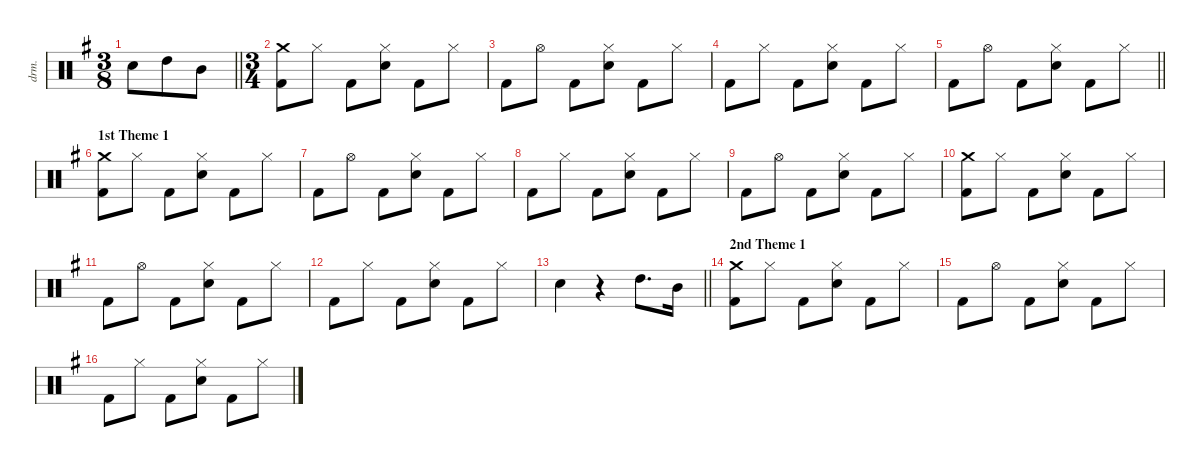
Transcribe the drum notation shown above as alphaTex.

\defaultSystemsLayout 4
\hideDynamics
\bracketExtendMode groupsimilarinstruments
\otherSystemsTrackNameOrientation horizontal
\track ("Drums" "drm.") {defaultSystemsLayout 4 instrument percussion}
\staff {score}
\articulation defaults
\ts (3 8)
\beaming (8 3)
\ac
\tempo (120 hide)
\clef neutral
\barLineRight lightlight
\ks eminor "Snare (hit) 2"{acc forcenatural}.8{dy f beam Down} "High Tom (hit)"{acc forcenatural}.8{beam Down} "Mid Tom (hit)"{acc forcenatural}.8{beam Down}
|
\ts (3 4)
\beaming (8 2 2 2)
("Crash medium (hit)"{acc forcenatural} "Kick (hit) 2"{acc forcenatural}).8{beam Down} "Hi-Hat (closed)"{acc forcenatural}.8{beam Down} "Kick (hit) 2"{acc forcenatural}.8{beam Down} ("Hi-Hat (closed)"{acc forcenatural} "Snare (hit) 2"{acc forcenatural}).8{beam Down} "Kick (hit) 2"{acc forcenatural}.8{beam Down} "Hi-Hat (closed)"{acc forcenatural}.8{beam Down} |
"Kick (hit) 2"{acc forcenatural}.8{beam Down} "Hi-Hat (open)"{acc forcenatural}.8{beam Down} "Kick (hit) 2"{acc forcenatural}.8{beam Down} ("Hi-Hat (closed)"{acc forcenatural} "Snare (hit) 2"{acc forcenatural}).8{beam Down} "Kick (hit) 2"{acc forcenatural}.8{beam Down} "Hi-Hat (closed)"{acc forcenatural}.8{beam Down} |
"Kick (hit) 2"{acc forcenatural}.8{beam Down} "Hi-Hat (closed)"{acc forcenatural}.8{beam Down} "Kick (hit) 2"{acc forcenatural}.8{beam Down} ("Hi-Hat (closed)"{acc forcenatural} "Snare (hit) 2"{acc forcenatural}).8{beam Down} "Kick (hit) 2"{acc forcenatural}.8{beam Down} "Hi-Hat (closed)"{acc forcenatural}.8{beam Down} |
\barLineRight lightlight "Kick (hit) 2"{acc forcenatural}.8{beam Down} "Hi-Hat (open)"{acc forcenatural}.8{beam Down} "Kick (hit) 2"{acc forcenatural}.8{beam Down}
("Hi-Hat (closed)"{acc forcenatural} "Snare (hit) 2"{acc forcenatural}).8{beam Down} "Kick (hit) 2"{acc forcenatural}.8{beam Down} "Hi-Hat (closed)"{acc forcenatural}.8{beam Down} |
\section ("" "1st Theme 1")
("Crash medium (hit)"{acc forcenatural} "Kick (hit) 2"{acc forcenatural}).8{beam Down} "Hi-Hat (closed)"{acc forcenatural}.8{beam Down} "Kick (hit) 2"{acc forcenatural}.8{beam Down} ("Hi-Hat (closed)"{acc forcenatural} "Snare (hit) 2"{acc forcenatural}).8{beam Down} "Kick (hit) 2"{acc forcenatural}.8{beam Down} "Hi-Hat (closed)"{acc forcenatural}.8{beam Down} |
"Kick (hit) 2"{acc forcenatural}.8{beam Down} "Hi-Hat (open)"{acc forcenatural}.8{beam Down} "Kick (hit) 2"{acc forcenatural}.8{beam Down} ("Hi-Hat (closed)"{acc forcenatural} "Snare (hit) 2"{acc forcenatural}).8{beam Down} "Kick (hit) 2"{acc forcenatural}.8{beam Down} "Hi-Hat (closed)"{acc forcenatural}.8{beam Down} |
"Kick (hit) 2"{acc forcenatural}.8{beam Down} "Hi-Hat (closed)"{acc forcenatural}.8{beam Down} "Kick (hit) 2"{acc forcenatural}.8{beam Down} ("Hi-Hat (closed)"{acc forcenatural} "Snare (hit) 2"{acc forcenatural}).8{beam Down} "Kick (hit) 2"{acc forcenatural}.8{beam Down} "Hi-Hat (closed)"{acc forcenatural}.8{beam Down} |
"Kick (hit) 2"{acc forcenatural}.8{beam Down} "Hi-Hat (open)"{acc forcenatural}.8{beam Down} "Kick (hit) 2"{acc forcenatural}.8{beam Down} ("Hi-Hat (closed)"{acc forcenatural} "Snare (hit) 2"{acc forcenatural}).8{beam Down} "Kick (hit) 2"{acc forcenatural}.8{beam Down} "Hi-Hat (closed)"{acc forcenatural}.8{beam Down} |
("Crash medium (hit)"{acc forcenatural} "Kick (hit) 2"{acc forcenatural}).8{beam Down} "Hi-Hat (closed)"{acc forcenatural}.8{beam Down} "Kick (hit) 2"{acc forcenatural}.8{beam Down} ("Hi-Hat (closed)"{acc forcenatural} "Snare (hit) 2"{acc forcenatural}).8{beam Down} "Kick (hit) 2"{acc forcenatural}.8{beam Down} "Hi-Hat (closed)"{acc forcenatural}.8{beam Down} |
"Kick (hit) 2"{acc forcenatural}.8{beam Down} "Hi-Hat (open)"{acc forcenatural}.8{beam Down} "Kick (hit) 2"{acc forcenatural}.8{beam Down} ("Hi-Hat (closed)"{acc forcenatural} "Snare (hit) 2"{acc forcenatural}).8{beam Down} "Kick (hit) 2"{acc forcenatural}.8{beam Down} "Hi-Hat (closed)"{acc forcenatural}.8{beam Down} |
"Kick (hit) 2"{acc forcenatural}.8{beam Down} "Hi-Hat (closed)"{acc forcenatural}.8{beam Down} "Kick (hit) 2"{acc forcenatural}.8{beam Down} ("Hi-Hat (closed)"{acc forcenatural} "Snare (hit) 2"{acc forcenatural}).8{beam Down} "Kick (hit) 2"{acc forcenatural}.8{beam Down} "Hi-Hat (closed)"{acc forcenatural}.8{beam Down} |
\barLineRight lightlight "Snare (hit) 2"{acc forcenatural}.4{beam Down}
r.4{beam Down} "High Tom (hit)"{acc forcenatural}.8{d beam Down} "Mid Tom (hit)"{acc forcenatural}.16{beam Down} |
\section ("" "2nd Theme 1")
("Crash medium (hit)"{acc forcenatural} "Kick (hit) 2"{acc forcenatural}).8{beam Down} "Hi-Hat (closed)"{acc forcenatural}.8{beam Down} "Kick (hit) 2"{acc forcenatural}.8{beam Down} ("Hi-Hat (closed)"{acc forcenatural} "Snare (hit) 2"{acc forcenatural}).8{beam Down} "Kick (hit) 2"{acc forcenatural}.8{beam Down} "Hi-Hat (closed)"{acc forcenatural}.8{beam Down} |
"Kick (hit) 2"{acc forcenatural}.8{beam Down} "Hi-Hat (open)"{acc forcenatural}.8{beam Down} "Kick (hit) 2"{acc forcenatural}.8{beam Down} ("Hi-Hat (closed)"{acc forcenatural} "Snare (hit) 2"{acc forcenatural}).8{beam Down} "Kick (hit) 2"{acc forcenatural}.8{beam Down} "Hi-Hat (closed)"{acc forcenatural}.8{beam Down} |
"Kick (hit) 2"{acc forcenatural}.8{beam Down} "Hi-Hat (closed)"{acc forcenatural}.8{beam Down} "Kick (hit) 2"{acc forcenatural}.8{beam Down} ("Hi-Hat (closed)"{acc forcenatural} "Snare (hit) 2"{acc forcenatural}).8{beam Down} "Kick (hit) 2"{acc forcenatural}.8{beam Down} "Hi-Hat (closed)"{acc forcenatural}.8{beam Down}
